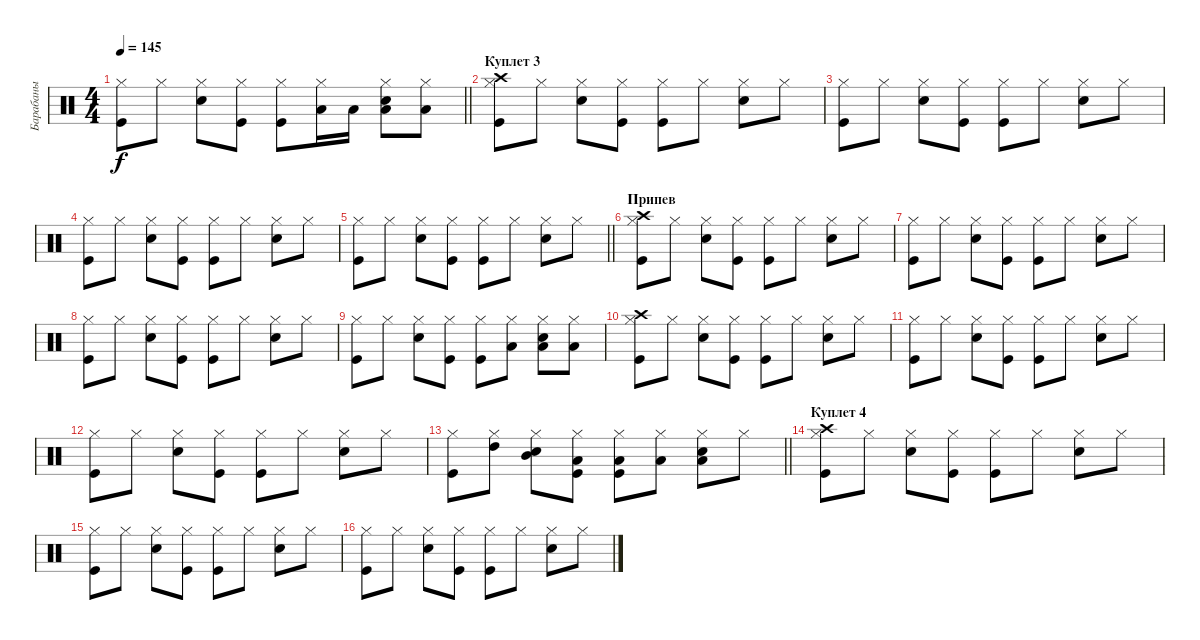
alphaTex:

\track ("Барабаны" "Барабаны") {instrument percussion}
\staff {score}
\articulation defaults
\ts (4 4)
\tempo 145
\clef neutral
\barLineRight lightlight
\ks c
("Kick (hit)" "Hi-Hat (closed)").8{dy f} "Hi-Hat (closed)".8 ("Snare (hit) 2" "Hi-Hat (closed)").8 ("Kick (hit)" "Hi-Hat (closed)").8 ("Kick (hit)" "Hi-Hat (closed)").8 ("Hi-Hat (closed)" "Low Floor Tom (hit)").16 "Low Floor Tom (hit)".16 ("Snare (hit) 2" "Hi-Hat (closed)" "Low Floor Tom (hit)").8 ("Hi-Hat (closed)" "Low Floor Tom (hit)").8 |
\section ("" "Куплет 3")
("Kick (hit)" "Hi-Hat (closed)" "Crash high (hit)").8 "Hi-Hat (closed)".8 ("Snare (hit) 2" "Hi-Hat (closed)").8 ("Kick (hit)" "Hi-Hat (closed)").8 ("Kick (hit)" "Hi-Hat (closed)").8 "Hi-Hat (closed)".8 ("Snare (hit) 2" "Hi-Hat (closed)").8 "Hi-Hat (closed)".8 |
("Kick (hit)" "Hi-Hat (closed)").8 "Hi-Hat (closed)".8 ("Snare (hit) 2" "Hi-Hat (closed)").8 ("Kick (hit)" "Hi-Hat (closed)").8 ("Kick (hit)" "Hi-Hat (closed)").8 "Hi-Hat (closed)".8 ("Snare (hit) 2" "Hi-Hat (closed)").8 "Hi-Hat (closed)".8 |
("Kick (hit)" "Hi-Hat (closed)").8 "Hi-Hat (closed)".8 ("Snare (hit) 2" "Hi-Hat (closed)").8 ("Kick (hit)" "Hi-Hat (closed)").8 ("Kick (hit)" "Hi-Hat (closed)").8 "Hi-Hat (closed)".8 ("Snare (hit) 2" "Hi-Hat (closed)").8 "Hi-Hat (closed)".8 |
\barLineRight lightlight
("Kick (hit)" "Hi-Hat (closed)").8 "Hi-Hat (closed)".8 ("Snare (hit) 2" "Hi-Hat (closed)").8 ("Kick (hit)" "Hi-Hat (closed)").8 ("Kick (hit)" "Hi-Hat (closed)").8 "Hi-Hat (closed)".8 ("Snare (hit) 2" "Hi-Hat (closed)").8 "Hi-Hat (closed)".8 |
\section ("" "Припев")
("Kick (hit)" "Hi-Hat (closed)" "Crash high (hit)").8 "Hi-Hat (closed)".8 ("Snare (hit) 2" "Hi-Hat (closed)").8 ("Kick (hit)" "Hi-Hat (closed)").8 ("Kick (hit)" "Hi-Hat (closed)").8 "Hi-Hat (closed)".8 ("Snare (hit) 2" "Hi-Hat (closed)").8 "Hi-Hat (closed)".8 |
("Kick (hit)" "Hi-Hat (closed)").8 "Hi-Hat (closed)".8 ("Snare (hit) 2" "Hi-Hat (closed)").8 ("Kick (hit)" "Hi-Hat (closed)").8 ("Kick (hit)" "Hi-Hat (closed)").8 "Hi-Hat (closed)".8 ("Snare (hit) 2" "Hi-Hat (closed)").8 "Hi-Hat (closed)".8 |
("Kick (hit)" "Hi-Hat (closed)").8 "Hi-Hat (closed)".8 ("Snare (hit) 2" "Hi-Hat (closed)").8 ("Kick (hit)" "Hi-Hat (closed)").8 ("Kick (hit)" "Hi-Hat (closed)").8 "Hi-Hat (closed)".8 ("Snare (hit) 2" "Hi-Hat (closed)").8 "Hi-Hat (closed)".8 |
("Kick (hit)" "Hi-Hat (closed)").8 "Hi-Hat (closed)".8 ("Snare (hit) 2" "Hi-Hat (closed)").8 ("Kick (hit)" "Hi-Hat (closed)").8 ("Kick (hit)" "Hi-Hat (closed)").8 ("Hi-Hat (closed)" "Low Tom (hit)").8 ("Snare (hit) 2" "Hi-Hat (closed)" "Low Tom (hit)").8 ("Hi-Hat (closed)" "Low Tom (hit)").8 |
("Kick (hit)" "Hi-Hat (closed)" "Crash high (hit)").8 "Hi-Hat (closed)".8 ("Snare (hit) 2" "Hi-Hat (closed)").8 ("Kick (hit)" "Hi-Hat (closed)").8 ("Kick (hit)" "Hi-Hat (closed)").8 "Hi-Hat (closed)".8 ("Snare (hit) 2" "Hi-Hat (closed)").8 "Hi-Hat (closed)".8 |
("Kick (hit)" "Hi-Hat (closed)").8 "Hi-Hat (closed)".8 ("Snare (hit) 2" "Hi-Hat (closed)").8 ("Kick (hit)" "Hi-Hat (closed)").8 ("Kick (hit)" "Hi-Hat (closed)").8 "Hi-Hat (closed)".8 ("Snare (hit) 2" "Hi-Hat (closed)").8 "Hi-Hat (closed)".8 |
("Kick (hit)" "Hi-Hat (closed)").8 "Hi-Hat (closed)".8 ("Snare (hit) 2" "Hi-Hat (closed)").8 ("Kick (hit)" "Hi-Hat (closed)").8 ("Kick (hit)" "Hi-Hat (closed)").8 "Hi-Hat (closed)".8 ("Snare (hit) 2" "Hi-Hat (closed)").8 "Hi-Hat (closed)".8 |
\barLineRight lightlight
("Kick (hit)" "Hi-Hat (closed)").8 ("Hi-Hat (closed)" "High Tom (hit)").8 ("Snare (hit) 2" "Hi-Hat (closed)" "Mid Tom (hit)").8 ("Kick (hit)" "Hi-Hat (closed)" "Low Tom (hit)").8 ("Kick (hit)" "Hi-Hat (closed)" "Low Tom (hit)").8 ("Hi-Hat (closed)" "Low Tom (hit)").8 ("Snare (hit) 2" "Hi-Hat (closed)" "Low Tom (hit)").8 "Hi-Hat (closed)".8 |
\section ("" "Куплет 4")
("Kick (hit)" "Hi-Hat (closed)" "Crash high (hit)").8 "Hi-Hat (closed)".8 ("Snare (hit) 2" "Hi-Hat (closed)").8 ("Kick (hit)" "Hi-Hat (closed)").8 ("Kick (hit)" "Hi-Hat (closed)").8 "Hi-Hat (closed)".8 ("Snare (hit) 2" "Hi-Hat (closed)").8 "Hi-Hat (closed)".8 |
("Kick (hit)" "Hi-Hat (closed)").8 "Hi-Hat (closed)".8 ("Snare (hit) 2" "Hi-Hat (closed)").8 ("Kick (hit)" "Hi-Hat (closed)").8 ("Kick (hit)" "Hi-Hat (closed)").8 "Hi-Hat (closed)".8 ("Snare (hit) 2" "Hi-Hat (closed)").8 "Hi-Hat (closed)".8 |
("Kick (hit)" "Hi-Hat (closed)").8 "Hi-Hat (closed)".8 ("Snare (hit) 2" "Hi-Hat (closed)").8 ("Kick (hit)" "Hi-Hat (closed)").8 ("Kick (hit)" "Hi-Hat (closed)").8 "Hi-Hat (closed)".8 ("Snare (hit) 2" "Hi-Hat (closed)").8 "Hi-Hat (closed)".8
